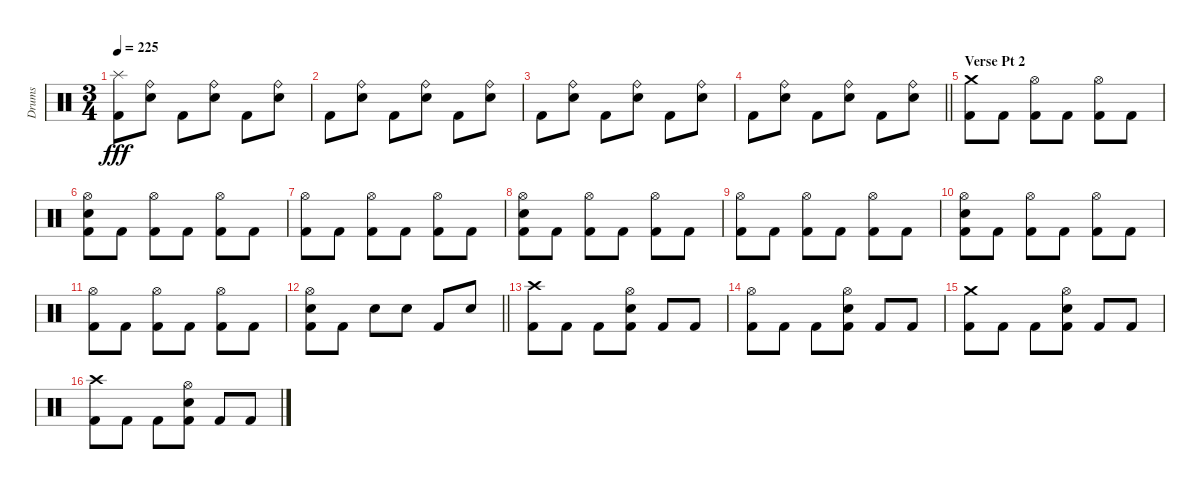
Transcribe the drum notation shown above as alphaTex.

\track ("Drums" "Drums") {instrument percussion}
\staff {score}
\articulation defaults
\ts (3 4)
\tempo 225
\clef neutral
\ks c
("Splash (hit)" "Kick (hit) 2").8{dy fff} ("Ride (bell)" "Electric Snare (hit)").8 "Kick (hit) 2".8 ("Ride (bell)" "Electric Snare (hit)").8 "Kick (hit) 2".8 ("Ride (bell)" "Electric Snare (hit)").8 |
"Kick (hit) 2".8 ("Ride (bell)" "Electric Snare (hit)").8 "Kick (hit) 2".8 ("Ride (bell)" "Electric Snare (hit)").8 "Kick (hit) 2".8 ("Ride (bell)" "Electric Snare (hit)").8 |
"Kick (hit) 2".8 ("Ride (bell)" "Electric Snare (hit)").8 "Kick (hit) 2".8 ("Ride (bell)" "Electric Snare (hit)").8 "Kick (hit) 2".8 ("Ride (bell)" "Electric Snare (hit)").8 |
\barLineRight lightlight "Kick (hit) 2".8
("Ride (bell)" "Electric Snare (hit)").8 "Kick (hit) 2".8 ("Ride (bell)" "Electric Snare (hit)").8 "Kick (hit) 2".8 ("Ride (bell)" "Electric Snare (hit)").8 |
\section ("" "Verse Pt 2")
("Crash medium (hit)" "Kick (hit) 2").8 "Kick (hit) 2".8 ("Hi-Hat (open)" "Kick (hit) 2").8 "Kick (hit) 2".8 ("Hi-Hat (open)" "Kick (hit) 2").8 "Kick (hit) 2".8 |
("Hi-Hat (open)" "Electric Snare (hit)" "Kick (hit) 2").8 "Kick (hit) 2".8 ("Hi-Hat (open)" "Kick (hit) 2").8 "Kick (hit) 2".8 ("Hi-Hat (open)" "Kick (hit) 2").8 "Kick (hit) 2".8 |
("Hi-Hat (open)" "Kick (hit) 2").8 "Kick (hit) 2".8 ("Hi-Hat (open)" "Kick (hit) 2").8 "Kick (hit) 2".8 ("Hi-Hat (open)" "Kick (hit) 2").8 "Kick (hit) 2".8 |
("Hi-Hat (open)" "Electric Snare (hit)" "Kick (hit) 2").8 "Kick (hit) 2".8 ("Hi-Hat (open)" "Kick (hit) 2").8 "Kick (hit) 2".8 ("Hi-Hat (open)" "Kick (hit) 2").8 "Kick (hit) 2".8 |
("Hi-Hat (open)" "Kick (hit) 2").8 "Kick (hit) 2".8 ("Hi-Hat (open)" "Kick (hit) 2").8 "Kick (hit) 2".8 ("Hi-Hat (open)" "Kick (hit) 2").8 "Kick (hit) 2".8 |
("Hi-Hat (open)" "Electric Snare (hit)" "Kick (hit) 2").8 "Kick (hit) 2".8 ("Hi-Hat (open)" "Kick (hit) 2").8 "Kick (hit) 2".8 ("Hi-Hat (open)" "Kick (hit) 2").8 "Kick (hit) 2".8 |
("Hi-Hat (open)" "Kick (hit) 2").8 "Kick (hit) 2".8 ("Hi-Hat (open)" "Kick (hit) 2").8 "Kick (hit) 2".8 ("Hi-Hat (open)" "Kick (hit) 2").8 "Kick (hit) 2".8 |
\barLineRight lightlight
("Hi-Hat (open)" "Electric Snare (hit)" "Kick (hit) 2").8 "Kick (hit) 2".8 "Electric Snare (hit)".8 "Electric Snare (hit)".8 "Kick (hit) 2".8 "Electric Snare (hit)".8 |
("Crash high (hit)" "Kick (hit) 2").8 "Kick (hit) 2".8 "Kick (hit) 2".8 ("Hi-Hat (open)" "Electric Snare (hit)" "Kick (hit) 2").8 "Kick (hit) 2".8 "Kick (hit) 2".8 |
("Hi-Hat (open)" "Kick (hit) 2").8 "Kick (hit) 2".8 "Kick (hit) 2".8 ("Hi-Hat (open)" "Electric Snare (hit)" "Kick (hit) 2").8 "Kick (hit) 2".8 "Kick (hit) 2".8 |
("Crash medium (hit)" "Kick (hit) 2").8 "Kick (hit) 2".8 "Kick (hit) 2".8 ("Hi-Hat (open)" "Electric Snare (hit)" "Kick (hit) 2").8 "Kick (hit) 2".8 "Kick (hit) 2".8 |
("Crash high (hit)" "Kick (hit) 2").8 "Kick (hit) 2".8 "Kick (hit) 2".8 ("Hi-Hat (open)" "Electric Snare (hit)" "Kick (hit) 2").8 "Kick (hit) 2".8 "Kick (hit) 2".8
